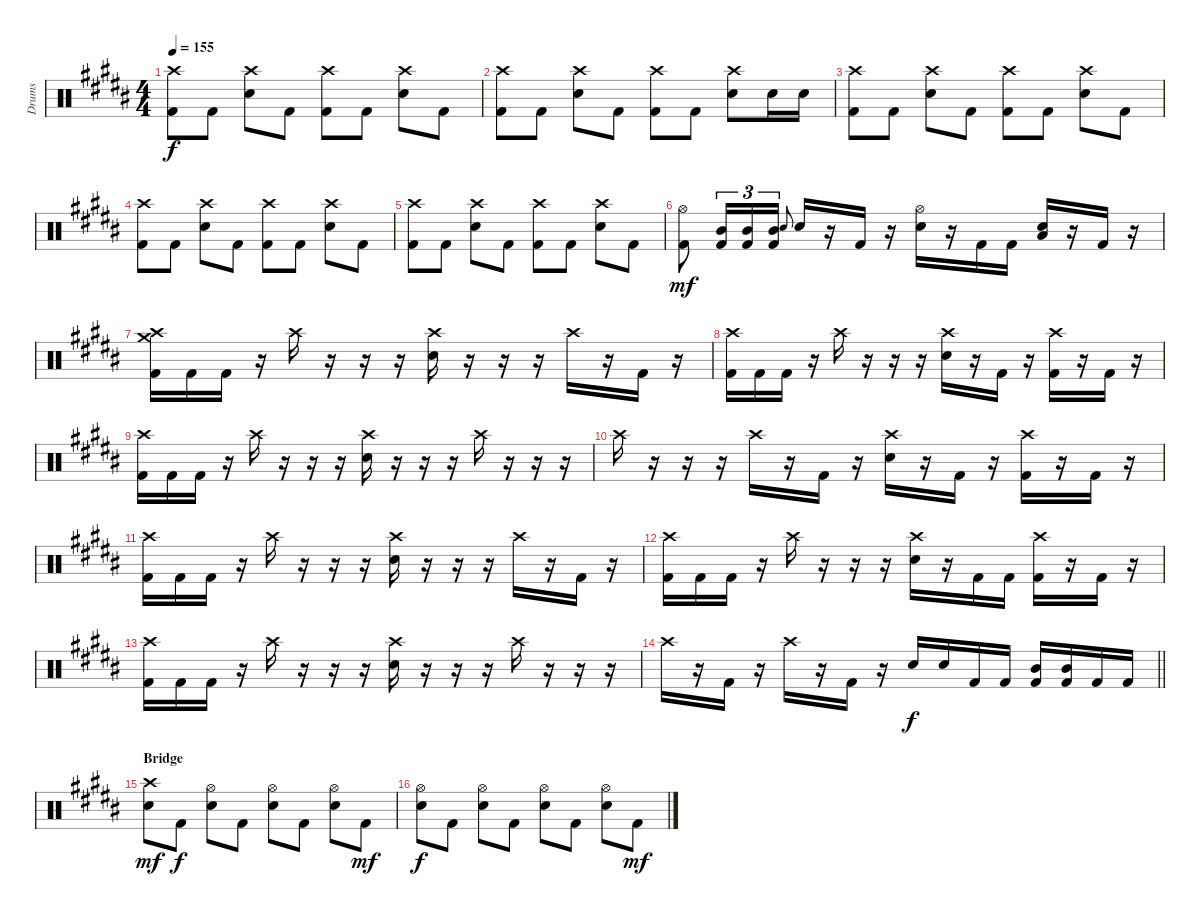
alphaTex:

\track ("Drums" "Drums") {instrument percussion}
\staff {score}
\articulation defaults
\ts (4 4)
\tempo 155
\clef neutral
\ks g#minor
("Crash high (hit)" "Kick (hit) 2").8{dy f} "Kick (hit) 2".8 ("Crash high (hit)" "Electric Snare (hit)").8 "Kick (hit) 2".8 ("Crash high (hit)" "Kick (hit) 2").8 "Kick (hit) 2".8 ("Crash high (hit)" "Electric Snare (hit)").8 "Kick (hit) 2".8 |
("Crash high (hit)" "Kick (hit) 2").8 "Kick (hit) 2".8 ("Crash high (hit)" "Electric Snare (hit)").8 "Kick (hit) 2".8 ("Crash high (hit)" "Kick (hit) 2").8 "Kick (hit) 2".8 ("Crash high (hit)" "Electric Snare (hit)").8 "Electric Snare (hit)".16 "Electric Snare (hit)".16 |
("Crash high (hit)" "Kick (hit) 2").8 "Kick (hit) 2".8 ("Crash high (hit)" "Electric Snare (hit)").8 "Kick (hit) 2".8 ("Crash high (hit)" "Kick (hit) 2").8 "Kick (hit) 2".8 ("Crash high (hit)" "Electric Snare (hit)").8 "Kick (hit) 2".8 |
("Crash high (hit)" "Kick (hit) 2").8 "Kick (hit) 2".8 ("Crash high (hit)" "Electric Snare (hit)").8 "Kick (hit) 2".8 ("Crash high (hit)" "Kick (hit) 2").8 "Kick (hit) 2".8 ("Crash high (hit)" "Electric Snare (hit)").8 "Kick (hit) 2".8 |
("Crash high (hit)" "Kick (hit) 2").8 "Kick (hit) 2".8 ("Crash high (hit)" "Electric Snare (hit)").8 "Kick (hit) 2".8 ("Crash high (hit)" "Kick (hit) 2").8 "Kick (hit) 2".8 ("Crash high (hit)" "Electric Snare (hit)").8 "Kick (hit) 2".8 |
("Hi-Hat (open)" "Kick (hit) 2").8{dy mf} ("Mid Tom (hit)" "Kick (hit) 2").16{tu (3 2)} ("Mid Tom (hit)" "Kick (hit) 2").16{tu (3 2)} ("Mid Tom (hit)" "Kick (hit) 2").16{tu (3 2)} "Electric Snare (hit)"{h}.8{gr onbeat} "Electric Snare (hit)".16 r.16 "Kick (hit) 2".16 r.16 ("Hi-Hat (open)" "Electric Snare (hit)").16 r.16 "Kick (hit) 2".16 "Kick (hit) 2".16 ("Low Floor Tom (hit)" "Electric Snare (hit)").16 r.16 "Kick (hit) 2".16 r.16 |
("Crash high (hit)" "Crash medium (hit)" "Kick (hit) 2").16 "Kick (hit) 2".16 "Kick (hit) 2".16 r.16 "Crash high (hit)".16 r.16 r.16 r.16 ("Crash high (hit)" "Electric Snare (hit)").16 r.16 r.16 r.16 "Crash high (hit)".16 r.16 "Kick (hit) 2".16 r.16 |
("Crash high (hit)" "Kick (hit) 2").16 "Kick (hit) 2".16 "Kick (hit) 2".16 r.16 "Crash high (hit)".16 r.16 r.16 r.16 ("Crash high (hit)" "Electric Snare (hit)").16 r.16 "Kick (hit) 2".16 r.16 ("Crash high (hit)" "Kick (hit) 2").16 r.16 "Kick (hit) 2".16 r.16 |
("Crash high (hit)" "Kick (hit) 2").16 "Kick (hit) 2".16 "Kick (hit) 2".16 r.16 "Crash high (hit)".16 r.16 r.16 r.16 ("Crash high (hit)" "Electric Snare (hit)").16 r.16 r.16 r.16 "Crash high (hit)".16 r.16 r.16 r.16 |
"Crash high (hit)".16 r.16 r.16 r.16 "Crash high (hit)".16 r.16 "Kick (hit) 2".16 r.16 ("Crash high (hit)" "Electric Snare (hit)").16 r.16 "Kick (hit) 2".16 r.16 ("Crash high (hit)" "Kick (hit) 2").16 r.16 "Kick (hit) 2".16 r.16 |
("Crash high (hit)" "Kick (hit) 2").16 "Kick (hit) 2".16 "Kick (hit) 2".16 r.16 "Crash high (hit)".16 r.16 r.16 r.16 ("Crash high (hit)" "Electric Snare (hit)").16 r.16 r.16 r.16 "Crash high (hit)".16 r.16 "Kick (hit) 2".16 r.16 |
("Crash high (hit)" "Kick (hit) 2").16 "Kick (hit) 2".16 "Kick (hit) 2".16 r.16 "Crash high (hit)".16 r.16 r.16 r.16 ("Crash high (hit)" "Electric Snare (hit)").16 r.16 "Kick (hit) 2".16 "Kick (hit) 2".16 ("Crash high (hit)" "Kick (hit) 2").16 r.16 "Kick (hit) 2".16 r.16 |
("Crash high (hit)" "Kick (hit) 2").16 "Kick (hit) 2".16 "Kick (hit) 2".16 r.16 "Crash high (hit)".16 r.16 r.16 r.16 ("Crash high (hit)" "Electric Snare (hit)").16 r.16 r.16 r.16 "Crash high (hit)".16 r.16 r.16 r.16 |
\barLineRight lightlight "Crash high (hit)".16
r.16 "Kick (hit) 2".16 r.16 "Crash high (hit)".16 r.16 "Kick (hit) 2".16 r.16 "Electric Snare (hit)".16{dy f} "Electric Snare (hit)".16 "Kick (hit) 2".16 "Kick (hit) 2".16 ("Mid Tom (hit)" "Kick (hit) 2").16 ("Mid Tom (hit)" "Kick (hit) 2").16 "Kick (hit) 2".16 "Kick (hit) 2".16 |
\section ("" "Bridge")
("Crash high (hit)" "Electric Snare (hit)").8{dy mf} "Kick (hit) 2".8{dy f} ("Hi-Hat (open)" "Electric Snare (hit)").8 "Kick (hit) 2".8 ("Hi-Hat (open)" "Electric Snare (hit)").8 "Kick (hit) 2".8 ("Hi-Hat (open)" "Electric Snare (hit)").8 "Kick (hit) 2".8{dy mf} |
("Hi-Hat (open)" "Electric Snare (hit)").8{dy f} "Kick (hit) 2".8 ("Hi-Hat (open)" "Electric Snare (hit)").8 "Kick (hit) 2".8 ("Hi-Hat (open)" "Electric Snare (hit)").8 "Kick (hit) 2".8 ("Hi-Hat (open)" "Electric Snare (hit)").8 "Kick (hit) 2".8{dy mf}
